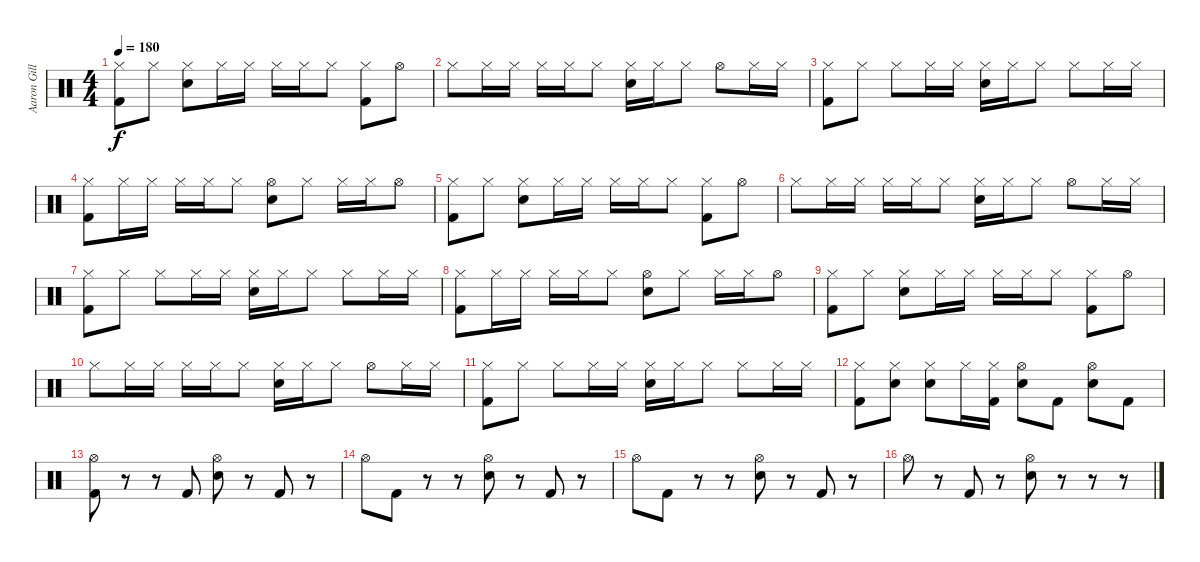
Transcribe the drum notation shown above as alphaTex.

\track ("Aaron Gillespie 1" "Aaron Gill") {instrument percussion}
\staff {score}
\articulation defaults
\ts (4 4)
\tempo 180
\clef neutral
\ks c
("Hi-Hat (closed)" "Kick (hit) 2").8{dy f} "Hi-Hat (closed)".8 ("Hi-Hat (closed)" "Snare (hit) 2").8 "Hi-Hat (closed)".16 "Hi-Hat (closed)".16 "Hi-Hat (closed)".16 "Hi-Hat (closed)".16 "Hi-Hat (closed)".8 ("Hi-Hat (closed)" "Kick (hit) 2").8 "Hi-Hat (open)".8 |
"Hi-Hat (closed)".8 "Hi-Hat (closed)".16 "Hi-Hat (closed)".16 "Hi-Hat (closed)".16 "Hi-Hat (closed)".16 "Hi-Hat (closed)".8 ("Hi-Hat (closed)" "Snare (hit) 2").16 "Hi-Hat (closed)".16 "Hi-Hat (closed)".8 "Hi-Hat (open)".8 "Hi-Hat (closed)".16 "Hi-Hat (closed)".16 |
("Hi-Hat (closed)" "Kick (hit) 2").8 "Hi-Hat (closed)".8 "Hi-Hat (closed)".8 "Hi-Hat (closed)".16 "Hi-Hat (closed)".16 ("Hi-Hat (closed)" "Snare (hit) 2").16 "Hi-Hat (closed)".16 "Hi-Hat (closed)".8 "Hi-Hat (closed)".8 "Hi-Hat (closed)".16 "Hi-Hat (closed)".16 |
("Hi-Hat (closed)" "Kick (hit) 2").8 "Hi-Hat (closed)".16 "Hi-Hat (closed)".16 "Hi-Hat (closed)".16 "Hi-Hat (closed)".16 "Hi-Hat (closed)".8 ("Hi-Hat (open)" "Snare (hit) 2").8 "Hi-Hat (closed)".8 "Hi-Hat (closed)".16 "Hi-Hat (closed)".16 "Hi-Hat (open)".8 |
("Hi-Hat (closed)" "Kick (hit) 2").8 "Hi-Hat (closed)".8 ("Hi-Hat (closed)" "Snare (hit) 2").8 "Hi-Hat (closed)".16 "Hi-Hat (closed)".16 "Hi-Hat (closed)".16 "Hi-Hat (closed)".16 "Hi-Hat (closed)".8 ("Hi-Hat (closed)" "Kick (hit) 2").8 "Hi-Hat (open)".8 |
"Hi-Hat (closed)".8 "Hi-Hat (closed)".16 "Hi-Hat (closed)".16 "Hi-Hat (closed)".16 "Hi-Hat (closed)".16 "Hi-Hat (closed)".8 ("Hi-Hat (closed)" "Snare (hit) 2").16 "Hi-Hat (closed)".16 "Hi-Hat (closed)".8 "Hi-Hat (open)".8 "Hi-Hat (closed)".16 "Hi-Hat (closed)".16 |
("Hi-Hat (closed)" "Kick (hit) 2").8 "Hi-Hat (closed)".8 "Hi-Hat (closed)".8 "Hi-Hat (closed)".16 "Hi-Hat (closed)".16 ("Hi-Hat (closed)" "Snare (hit) 2").16 "Hi-Hat (closed)".16 "Hi-Hat (closed)".8 "Hi-Hat (closed)".8 "Hi-Hat (closed)".16 "Hi-Hat (closed)".16 |
("Hi-Hat (closed)" "Kick (hit) 2").8 "Hi-Hat (closed)".16 "Hi-Hat (closed)".16 "Hi-Hat (closed)".16 "Hi-Hat (closed)".16 "Hi-Hat (closed)".8 ("Hi-Hat (open)" "Snare (hit) 2").8 "Hi-Hat (closed)".8 "Hi-Hat (closed)".16 "Hi-Hat (closed)".16 "Hi-Hat (open)".8 |
("Hi-Hat (closed)" "Kick (hit) 2").8 "Hi-Hat (closed)".8 ("Hi-Hat (closed)" "Snare (hit) 2").8 "Hi-Hat (closed)".16 "Hi-Hat (closed)".16 "Hi-Hat (closed)".16 "Hi-Hat (closed)".16 "Hi-Hat (closed)".8 ("Hi-Hat (closed)" "Kick (hit) 2").8 "Hi-Hat (open)".8 |
"Hi-Hat (closed)".8 "Hi-Hat (closed)".16 "Hi-Hat (closed)".16 "Hi-Hat (closed)".16 "Hi-Hat (closed)".16 "Hi-Hat (closed)".8 ("Hi-Hat (closed)" "Snare (hit) 2").16 "Hi-Hat (closed)".16 "Hi-Hat (closed)".8 "Hi-Hat (open)".8 "Hi-Hat (closed)".16 "Hi-Hat (closed)".16 |
("Hi-Hat (closed)" "Kick (hit) 2").8 "Hi-Hat (closed)".8 "Hi-Hat (closed)".8 "Hi-Hat (closed)".16 "Hi-Hat (closed)".16 ("Hi-Hat (closed)" "Snare (hit) 2").16 "Hi-Hat (closed)".16 "Hi-Hat (closed)".8 "Hi-Hat (closed)".8 "Hi-Hat (closed)".16 "Hi-Hat (closed)".16 |
("Hi-Hat (closed)" "Kick (hit) 2").8 ("Hi-Hat (closed)" "Snare (hit) 2").8 ("Hi-Hat (closed)" "Snare (hit) 2").8 "Hi-Hat (closed)".16 ("Hi-Hat (closed)" "Kick (hit) 2").16 ("Hi-Hat (open)" "Snare (hit) 2").8 "Kick (hit) 2".8 ("Hi-Hat (open)" "Snare (hit) 2").8 "Kick (hit) 2".8 |
("Hi-Hat (open)" "Kick (hit) 2").8 r.8 r.8 "Kick (hit) 2".8 ("Hi-Hat (open)" "Snare (hit) 2").8 r.8 "Kick (hit) 2".8 r.8 |
"Hi-Hat (open)".8 "Kick (hit) 2".8 r.8 r.8 ("Hi-Hat (open)" "Snare (hit) 2").8 r.8 "Kick (hit) 2".8 r.8 |
"Hi-Hat (open)".8 "Kick (hit) 2".8 r.8 r.8 ("Hi-Hat (open)" "Snare (hit) 2").8 r.8 "Kick (hit) 2".8 r.8 |
"Hi-Hat (open)".8 r.8 "Kick (hit) 2".8 r.8 ("Hi-Hat (open)" "Snare (hit) 2").8 r.8 r.8 r.8
